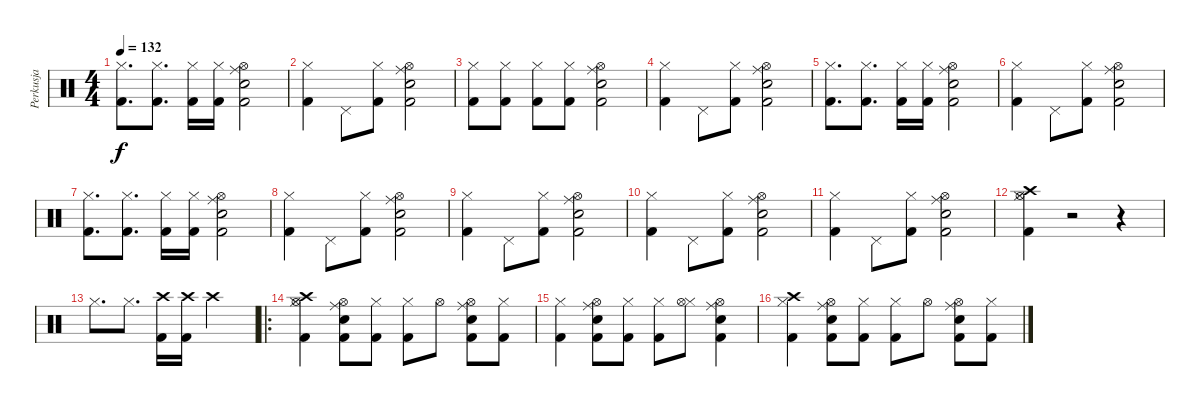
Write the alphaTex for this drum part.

\track ("Perkusja" "Perkusja") {instrument percussion}
\staff {score}
\articulation defaults
\ts (4 4)
\tempo 132
\clef neutral
\ks c
("Hi-Hat (closed)" "Kick (hit) 2").8{d dy f} ("Hi-Hat (closed)" "Kick (hit) 2").8{d} ("Hi-Hat (closed)" "Kick (hit) 2").16 ("Hi-Hat (closed)" "Kick (hit) 2").16 ("Electric Snare (hit)" "Kick (hit) 2" "Ride (middle)" "Hi-Hat (open)").2 |
("Hi-Hat (closed)" "Kick (hit) 2").4 "Pedal Hi-Hat (hit)".8 ("Hi-Hat (closed)" "Kick (hit) 2").8 ("Electric Snare (hit)" "Kick (hit) 2" "Ride (middle)" "Hi-Hat (open)").2 |
("Hi-Hat (closed)" "Kick (hit) 2").8 ("Hi-Hat (closed)" "Kick (hit) 2").8 ("Hi-Hat (closed)" "Kick (hit) 2").8 ("Hi-Hat (closed)" "Kick (hit) 2").8 ("Electric Snare (hit)" "Kick (hit) 2" "Ride (middle)" "Hi-Hat (open)").2 |
("Hi-Hat (closed)" "Kick (hit) 2").4 "Pedal Hi-Hat (hit)".8 ("Hi-Hat (closed)" "Kick (hit) 2").8 ("Electric Snare (hit)" "Kick (hit) 2" "Ride (middle)" "Hi-Hat (open)").2 |
("Hi-Hat (closed)" "Kick (hit) 2").8{d} ("Hi-Hat (closed)" "Kick (hit) 2").8{d} ("Hi-Hat (closed)" "Kick (hit) 2").16 ("Hi-Hat (closed)" "Kick (hit) 2").16 ("Electric Snare (hit)" "Kick (hit) 2" "Ride (middle)" "Hi-Hat (open)").2 |
("Hi-Hat (closed)" "Kick (hit) 2").4 "Pedal Hi-Hat (hit)".8 ("Hi-Hat (closed)" "Kick (hit) 2").8 ("Electric Snare (hit)" "Kick (hit) 2" "Ride (middle)" "Hi-Hat (open)").2 |
("Hi-Hat (closed)" "Kick (hit) 2").8{d} ("Hi-Hat (closed)" "Kick (hit) 2").8{d} ("Hi-Hat (closed)" "Kick (hit) 2").16 ("Hi-Hat (closed)" "Kick (hit) 2").16 ("Electric Snare (hit)" "Kick (hit) 2" "Ride (middle)" "Hi-Hat (open)").2 |
("Hi-Hat (closed)" "Kick (hit) 2").4 "Pedal Hi-Hat (hit)".8 ("Hi-Hat (closed)" "Kick (hit) 2").8 ("Electric Snare (hit)" "Kick (hit) 2" "Ride (middle)" "Hi-Hat (open)").2 |
("Hi-Hat (closed)" "Kick (hit) 2").4 "Pedal Hi-Hat (hit)".8 ("Hi-Hat (closed)" "Kick (hit) 2").8 ("Electric Snare (hit)" "Kick (hit) 2" "Ride (middle)" "Hi-Hat (open)").2 |
("Hi-Hat (closed)" "Kick (hit) 2").4 "Pedal Hi-Hat (hit)".8 ("Hi-Hat (closed)" "Kick (hit) 2").8 ("Electric Snare (hit)" "Kick (hit) 2" "Ride (middle)" "Hi-Hat (open)").2 |
("Hi-Hat (closed)" "Kick (hit) 2").4 "Pedal Hi-Hat (hit)".8 ("Hi-Hat (closed)" "Kick (hit) 2").8 ("Electric Snare (hit)" "Kick (hit) 2" "Ride (middle)" "Hi-Hat (open)").2 |
("Kick (hit) 2" "Hi-Hat (closed)" "Crash high (hit)" "Hi-Hat (open)").4 r.2 r.4 |
"Hi-Hat (closed)".8{d} "Hi-Hat (closed)".8{d} ("Crash high (hit)" "Kick (hit) 2").16 ("Crash high (hit)" "Kick (hit) 2").16 "Crash high (hit)".2 |
\ro
("Kick (hit) 2" "Hi-Hat (closed)" "Crash high (hit)" "Hi-Hat (open)").4 ("Electric Snare (hit)" "Kick (hit) 2" "Ride (middle)" "Hi-Hat (open)").8 ("Hi-Hat (closed)" "Kick (hit) 2").8 ("Hi-Hat (closed)" "Kick (hit) 2").8 "Hi-Hat (open)".8 ("Electric Snare (hit)" "Kick (hit) 2" "Ride (middle)" "Hi-Hat (open)").8 ("Hi-Hat (closed)" "Kick (hit) 2").8 |
("Hi-Hat (closed)" "Kick (hit) 2").4 ("Electric Snare (hit)" "Kick (hit) 2" "Ride (middle)" "Hi-Hat (open)").8 ("Hi-Hat (closed)" "Kick (hit) 2").8 ("Hi-Hat (closed)" "Kick (hit) 2").8 ("Hi-Hat (closed)" "Hi-Hat (open)").8 ("Electric Snare (hit)" "Kick (hit) 2" "Ride (middle)" "Hi-Hat (open)").4 |
("Kick (hit) 2" "Hi-Hat (closed)" "Crash high (hit)").4 ("Electric Snare (hit)" "Kick (hit) 2" "Ride (middle)" "Hi-Hat (open)").8 ("Hi-Hat (closed)" "Kick (hit) 2").8 ("Hi-Hat (closed)" "Kick (hit) 2").8 "Hi-Hat (open)".8 ("Electric Snare (hit)" "Kick (hit) 2" "Ride (middle)" "Hi-Hat (open)").8 ("Hi-Hat (closed)" "Kick (hit) 2").8
